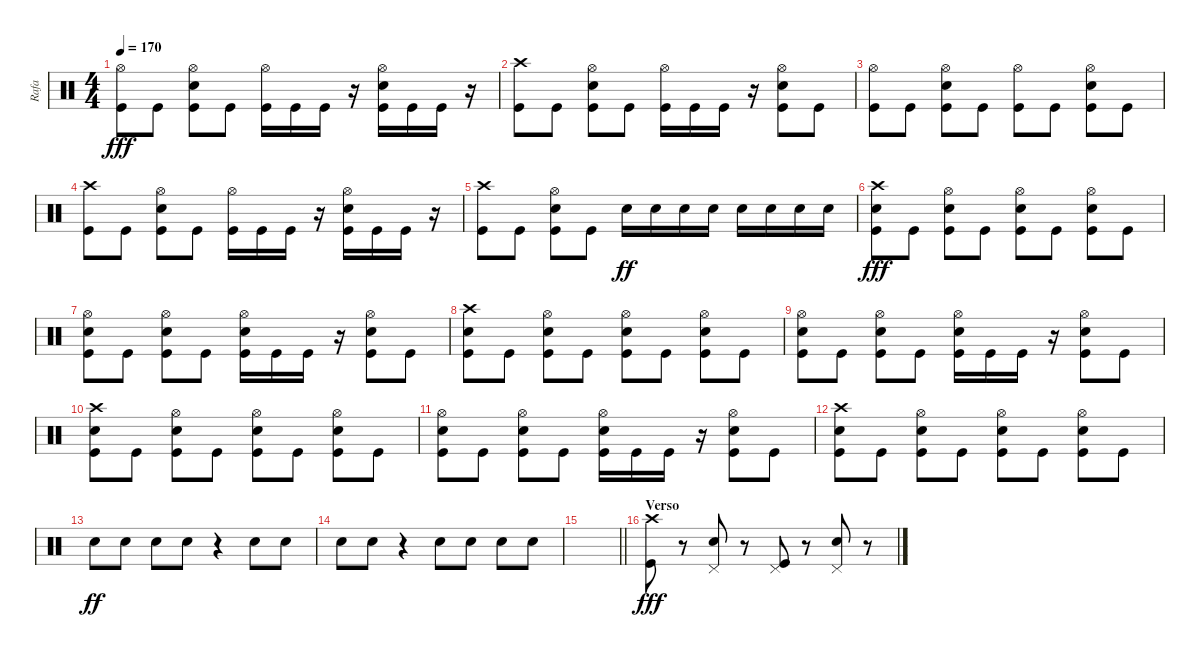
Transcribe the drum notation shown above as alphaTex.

\track ("Rafa" "Rafa") {instrument percussion}
\staff {score}
\articulation defaults
\ts (4 4)
\tempo 170
\clef neutral
\ks c
("Hi-Hat (open)" "Kick (hit)").8{dy fff} "Kick (hit)".8 ("Hi-Hat (open)" "Electric Snare (hit)" "Kick (hit)").8 "Kick (hit)".8 ("Hi-Hat (open)" "Kick (hit)").16 "Kick (hit)".16 "Kick (hit)".16 r.16 ("Hi-Hat (open)" "Electric Snare (hit)" "Kick (hit)").16 "Kick (hit)".16 "Kick (hit)".16 r.16 |
("Crash high (hit)" "Kick (hit)").8 "Kick (hit)".8 ("Hi-Hat (open)" "Electric Snare (hit)" "Kick (hit)").8 "Kick (hit)".8 ("Hi-Hat (open)" "Kick (hit)").16 "Kick (hit)".16 "Kick (hit)".16 r.16 ("Hi-Hat (open)" "Electric Snare (hit)" "Kick (hit)").8 "Kick (hit)".8 |
("Hi-Hat (open)" "Kick (hit)").8 "Kick (hit)".8 ("Hi-Hat (open)" "Electric Snare (hit)" "Kick (hit)").8 "Kick (hit)".8 ("Hi-Hat (open)" "Kick (hit)").8 "Kick (hit)".8 ("Hi-Hat (open)" "Electric Snare (hit)" "Kick (hit)").8 "Kick (hit)".8 |
("Crash high (hit)" "Kick (hit)").8 "Kick (hit)".8 ("Hi-Hat (open)" "Electric Snare (hit)" "Kick (hit)").8 "Kick (hit)".8 ("Hi-Hat (open)" "Kick (hit)").16 "Kick (hit)".16 "Kick (hit)".16 r.16 ("Hi-Hat (open)" "Electric Snare (hit)" "Kick (hit)").16 "Kick (hit)".16 "Kick (hit)".16 r.16 |
("Crash high (hit)" "Kick (hit)").8 "Kick (hit)".8 ("Hi-Hat (open)" "Electric Snare (hit)" "Kick (hit)").8 "Kick (hit)".8 "Electric Snare (hit)".16{dy ff} "Electric Snare (hit)".16 "Electric Snare (hit)".16 "Electric Snare (hit)".16 "Electric Snare (hit)".16 "Electric Snare (hit)".16 "Electric Snare (hit)".16 "Electric Snare (hit)".16 |
("Crash high (hit)" "Electric Snare (hit)" "Kick (hit)").8{dy fff} "Kick (hit)".8 ("Hi-Hat (open)" "Electric Snare (hit)" "Kick (hit)").8 "Kick (hit)".8 ("Hi-Hat (open)" "Electric Snare (hit)" "Kick (hit)").8 "Kick (hit)".8 ("Hi-Hat (open)" "Electric Snare (hit)" "Kick (hit)").8 "Kick (hit)".8 |
("Hi-Hat (open)" "Electric Snare (hit)" "Kick (hit)").8 "Kick (hit)".8 ("Hi-Hat (open)" "Electric Snare (hit)" "Kick (hit)").8 "Kick (hit)".8 ("Hi-Hat (open)" "Electric Snare (hit)" "Kick (hit)").16 "Kick (hit)".16 "Kick (hit)".16 r.16 ("Hi-Hat (open)" "Electric Snare (hit)" "Kick (hit)").8 "Kick (hit)".8 |
("Crash high (hit)" "Electric Snare (hit)" "Kick (hit)").8 "Kick (hit)".8 ("Hi-Hat (open)" "Electric Snare (hit)" "Kick (hit)").8 "Kick (hit)".8 ("Hi-Hat (open)" "Electric Snare (hit)" "Kick (hit)").8 "Kick (hit)".8 ("Hi-Hat (open)" "Electric Snare (hit)" "Kick (hit)").8 "Kick (hit)".8 |
("Hi-Hat (open)" "Electric Snare (hit)" "Kick (hit)").8 "Kick (hit)".8 ("Hi-Hat (open)" "Electric Snare (hit)" "Kick (hit)").8 "Kick (hit)".8 ("Hi-Hat (open)" "Electric Snare (hit)" "Kick (hit)").16 "Kick (hit)".16 "Kick (hit)".16 r.16 ("Hi-Hat (open)" "Electric Snare (hit)" "Kick (hit)").8 "Kick (hit)".8 |
("Crash high (hit)" "Electric Snare (hit)" "Kick (hit)").8 "Kick (hit)".8 ("Hi-Hat (open)" "Electric Snare (hit)" "Kick (hit)").8 "Kick (hit)".8 ("Hi-Hat (open)" "Electric Snare (hit)" "Kick (hit)").8 "Kick (hit)".8 ("Hi-Hat (open)" "Electric Snare (hit)" "Kick (hit)").8 "Kick (hit)".8 |
("Hi-Hat (open)" "Electric Snare (hit)" "Kick (hit)").8 "Kick (hit)".8 ("Hi-Hat (open)" "Electric Snare (hit)" "Kick (hit)").8 "Kick (hit)".8 ("Hi-Hat (open)" "Electric Snare (hit)" "Kick (hit)").16 "Kick (hit)".16 "Kick (hit)".16 r.16 ("Hi-Hat (open)" "Electric Snare (hit)" "Kick (hit)").8 "Kick (hit)".8 |
("Crash high (hit)" "Electric Snare (hit)" "Kick (hit)").8 "Kick (hit)".8 ("Hi-Hat (open)" "Electric Snare (hit)" "Kick (hit)").8 "Kick (hit)".8 ("Hi-Hat (open)" "Electric Snare (hit)" "Kick (hit)").8 "Kick (hit)".8 ("Hi-Hat (open)" "Electric Snare (hit)" "Kick (hit)").8 "Kick (hit)".8 |
"Electric Snare (hit)".8{dy ff} "Electric Snare (hit)".8 "Electric Snare (hit)".8 "Electric Snare (hit)".8 r.4 "Electric Snare (hit)".8 "Electric Snare (hit)".8 |
"Electric Snare (hit)".8 "Electric Snare (hit)".8 r.4 "Electric Snare (hit)".8 "Electric Snare (hit)".8 "Electric Snare (hit)".8 "Electric Snare (hit)".8 |
\barLineRight lightlight
|
\section ("" "Verso")
("Crash high (hit)" "Kick (hit)").8{dy fff} r.8 ("Pedal Hi-Hat (hit)" "Electric Snare (hit)").8 r.8 ("Pedal Hi-Hat (hit)" "Kick (hit)").8 r.8 ("Pedal Hi-Hat (hit)" "Electric Snare (hit)").8 r.8
